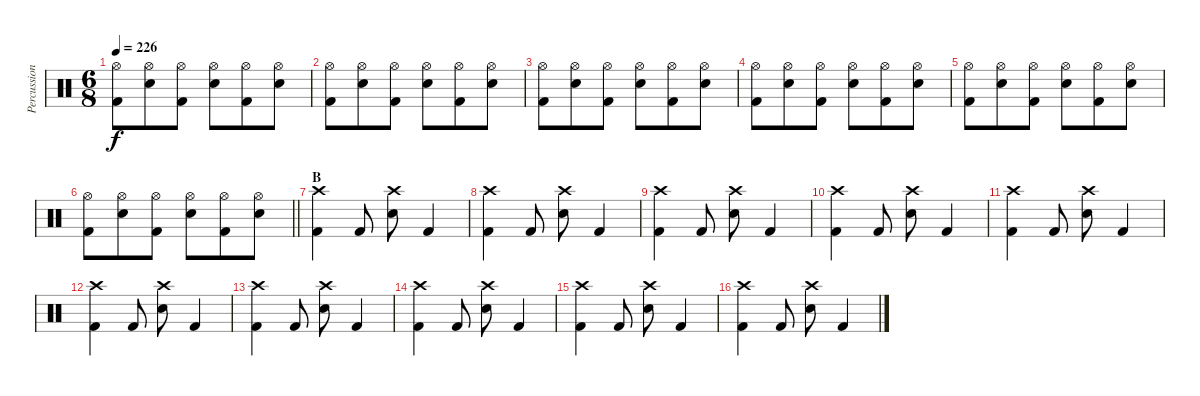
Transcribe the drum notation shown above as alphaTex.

\track ("Percussion" "Percussion") {instrument percussion}
\staff {score}
\articulation defaults
\ts (6 8)
\tempo 226
\clef neutral
\ks c
("Hi-Hat (open)" "Kick (hit) 2").8{dy f} ("Hi-Hat (open)" "Electric Snare (hit)").8 ("Hi-Hat (open)" "Kick (hit) 2").8 ("Hi-Hat (open)" "Electric Snare (hit)").8 ("Hi-Hat (open)" "Kick (hit) 2").8 ("Hi-Hat (open)" "Electric Snare (hit)").8 |
("Hi-Hat (open)" "Kick (hit) 2").8 ("Hi-Hat (open)" "Electric Snare (hit)").8 ("Hi-Hat (open)" "Kick (hit) 2").8 ("Hi-Hat (open)" "Electric Snare (hit)").8 ("Hi-Hat (open)" "Kick (hit) 2").8 ("Hi-Hat (open)" "Electric Snare (hit)").8 |
("Hi-Hat (open)" "Kick (hit) 2").8 ("Hi-Hat (open)" "Electric Snare (hit)").8 ("Hi-Hat (open)" "Kick (hit) 2").8 ("Hi-Hat (open)" "Electric Snare (hit)").8 ("Hi-Hat (open)" "Kick (hit) 2").8 ("Hi-Hat (open)" "Electric Snare (hit)").8 |
("Hi-Hat (open)" "Kick (hit) 2").8 ("Hi-Hat (open)" "Electric Snare (hit)").8 ("Hi-Hat (open)" "Kick (hit) 2").8 ("Hi-Hat (open)" "Electric Snare (hit)").8 ("Hi-Hat (open)" "Kick (hit) 2").8 ("Hi-Hat (open)" "Electric Snare (hit)").8 |
("Hi-Hat (open)" "Kick (hit) 2").8 ("Hi-Hat (open)" "Electric Snare (hit)").8 ("Hi-Hat (open)" "Kick (hit) 2").8 ("Hi-Hat (open)" "Electric Snare (hit)").8 ("Hi-Hat (open)" "Kick (hit) 2").8 ("Hi-Hat (open)" "Electric Snare (hit)").8 |
\barLineRight lightlight
("Hi-Hat (open)" "Kick (hit) 2").8 ("Hi-Hat (open)" "Electric Snare (hit)").8 ("Hi-Hat (open)" "Kick (hit) 2").8 ("Hi-Hat (open)" "Electric Snare (hit)").8 ("Hi-Hat (open)" "Kick (hit) 2").8 ("Hi-Hat (open)" "Electric Snare (hit)").8 |
\section ("" "B")
("Crash high (hit)" "Kick (hit) 2").4 "Kick (hit) 2".8 ("Crash high (hit)" "Electric Snare (hit)").8 "Kick (hit) 2".4 |
("Crash high (hit)" "Kick (hit) 2").4 "Kick (hit) 2".8 ("Crash high (hit)" "Electric Snare (hit)").8 "Kick (hit) 2".4 |
("Crash high (hit)" "Kick (hit) 2").4 "Kick (hit) 2".8 ("Crash high (hit)" "Electric Snare (hit)").8 "Kick (hit) 2".4 |
("Crash high (hit)" "Kick (hit) 2").4 "Kick (hit) 2".8 ("Crash high (hit)" "Electric Snare (hit)").8 "Kick (hit) 2".4 |
("Crash high (hit)" "Kick (hit) 2").4 "Kick (hit) 2".8 ("Crash high (hit)" "Electric Snare (hit)").8 "Kick (hit) 2".4 |
("Crash high (hit)" "Kick (hit) 2").4 "Kick (hit) 2".8 ("Crash high (hit)" "Electric Snare (hit)").8 "Kick (hit) 2".4 |
("Crash high (hit)" "Kick (hit) 2").4 "Kick (hit) 2".8 ("Crash high (hit)" "Electric Snare (hit)").8 "Kick (hit) 2".4 |
("Crash high (hit)" "Kick (hit) 2").4 "Kick (hit) 2".8 ("Crash high (hit)" "Electric Snare (hit)").8 "Kick (hit) 2".4 |
("Crash high (hit)" "Kick (hit) 2").4 "Kick (hit) 2".8 ("Crash high (hit)" "Electric Snare (hit)").8 "Kick (hit) 2".4 |
("Crash high (hit)" "Kick (hit) 2").4 "Kick (hit) 2".8 ("Crash high (hit)" "Electric Snare (hit)").8 "Kick (hit) 2".4
